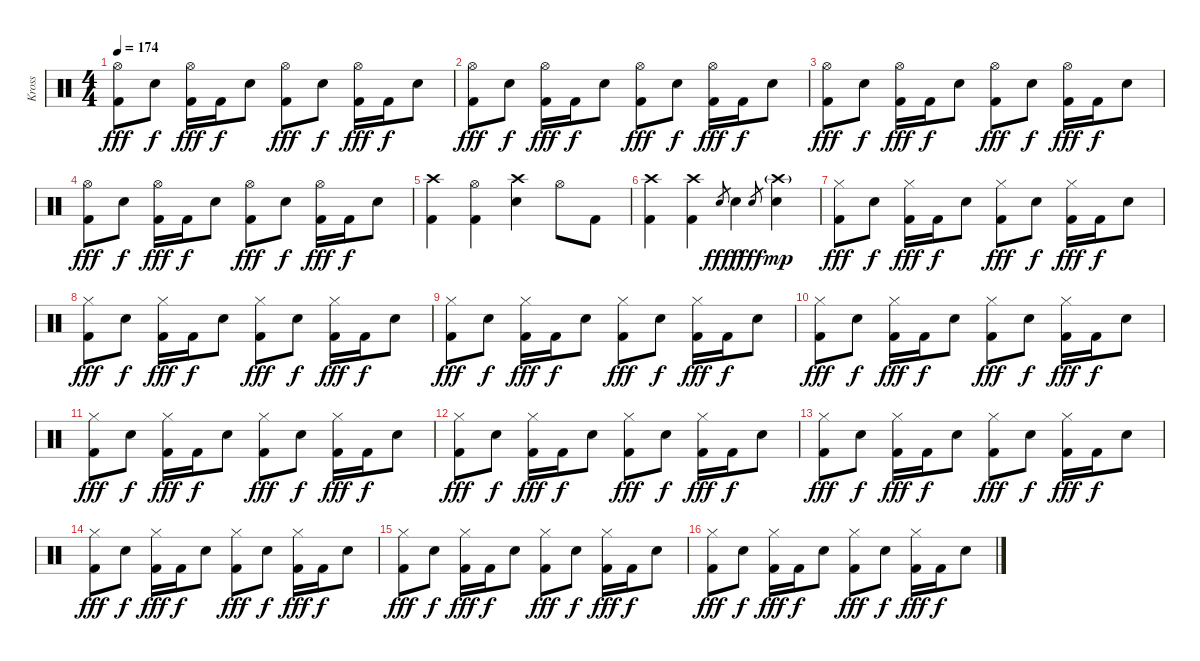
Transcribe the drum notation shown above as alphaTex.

\track ("Kross" "Kross") {instrument percussion}
\staff {score}
\articulation defaults
\ts (4 4)
\tempo 174
\clef neutral
\ks c
("Hi-Hat (open)" "Kick (hit) 2").8{dy fff} "Electric Snare (hit)".8{dy f} ("Hi-Hat (open)" "Kick (hit) 2").16{dy fff} "Kick (hit) 2".16{dy f} "Electric Snare (hit)".8 ("Hi-Hat (open)" "Kick (hit) 2").8{dy fff} "Electric Snare (hit)".8{dy f} ("Hi-Hat (open)" "Kick (hit) 2").16{dy fff} "Kick (hit) 2".16{dy f} "Electric Snare (hit)".8 |
("Hi-Hat (open)" "Kick (hit) 2").8{dy fff} "Electric Snare (hit)".8{dy f} ("Hi-Hat (open)" "Kick (hit) 2").16{dy fff} "Kick (hit) 2".16{dy f} "Electric Snare (hit)".8 ("Hi-Hat (open)" "Kick (hit) 2").8{dy fff} "Electric Snare (hit)".8{dy f} ("Hi-Hat (open)" "Kick (hit) 2").16{dy fff} "Kick (hit) 2".16{dy f} "Electric Snare (hit)".8 |
("Hi-Hat (open)" "Kick (hit) 2").8{dy fff} "Electric Snare (hit)".8{dy f} ("Hi-Hat (open)" "Kick (hit) 2").16{dy fff} "Kick (hit) 2".16{dy f} "Electric Snare (hit)".8 ("Hi-Hat (open)" "Kick (hit) 2").8{dy fff} "Electric Snare (hit)".8{dy f} ("Hi-Hat (open)" "Kick (hit) 2").16{dy fff} "Kick (hit) 2".16{dy f} "Electric Snare (hit)".8 |
("Hi-Hat (open)" "Kick (hit) 2").8{dy fff} "Electric Snare (hit)".8{dy f} ("Hi-Hat (open)" "Kick (hit) 2").16{dy fff} "Kick (hit) 2".16{dy f} "Electric Snare (hit)".8 ("Hi-Hat (open)" "Kick (hit) 2").8{dy fff} "Electric Snare (hit)".8{dy f} ("Hi-Hat (open)" "Kick (hit) 2").16{dy fff} "Kick (hit) 2".16{dy f} "Electric Snare (hit)".8 |
("Crash high (hit)" "Kick (hit) 2").4 ("Hi-Hat (open)" "Kick (hit) 2").4 ("Crash high (hit)" "Electric Snare (hit)").4 "Hi-Hat (open)".8 "Kick (hit) 2".8 |
("Crash high (hit)" "Kick (hit) 2").4 ("Crash high (hit)" "Kick (hit) 2").4 "Electric Snare (hit)".8{gr dy fff} "Electric Snare (hit)".4{dy f} "Electric Snare (hit)".8{gr dy fff} ("Crash high (hit)"{g} "Electric Snare (hit)").4{dy mp} |
("Hi-Hat (closed)" "Kick (hit) 2").8{dy fff} "Electric Snare (hit)".8{dy f} ("Hi-Hat (closed)" "Kick (hit) 2").16{dy fff} "Kick (hit) 2".16{dy f} "Electric Snare (hit)".8 ("Hi-Hat (closed)" "Kick (hit) 2").8{dy fff} "Electric Snare (hit)".8{dy f} ("Hi-Hat (closed)" "Kick (hit) 2").16{dy fff} "Kick (hit) 2".16{dy f} "Electric Snare (hit)".8 |
("Hi-Hat (closed)" "Kick (hit) 2").8{dy fff} "Electric Snare (hit)".8{dy f} ("Hi-Hat (closed)" "Kick (hit) 2").16{dy fff} "Kick (hit) 2".16{dy f} "Electric Snare (hit)".8 ("Hi-Hat (closed)" "Kick (hit) 2").8{dy fff} "Electric Snare (hit)".8{dy f} ("Hi-Hat (closed)" "Kick (hit) 2").16{dy fff} "Kick (hit) 2".16{dy f} "Electric Snare (hit)".8 |
("Hi-Hat (closed)" "Kick (hit) 2").8{dy fff} "Electric Snare (hit)".8{dy f} ("Hi-Hat (closed)" "Kick (hit) 2").16{dy fff} "Kick (hit) 2".16{dy f} "Electric Snare (hit)".8 ("Hi-Hat (closed)" "Kick (hit) 2").8{dy fff} "Electric Snare (hit)".8{dy f} ("Hi-Hat (closed)" "Kick (hit) 2").16{dy fff} "Kick (hit) 2".16{dy f} "Electric Snare (hit)".8 |
("Hi-Hat (closed)" "Kick (hit) 2").8{dy fff} "Electric Snare (hit)".8{dy f} ("Hi-Hat (closed)" "Kick (hit) 2").16{dy fff} "Kick (hit) 2".16{dy f} "Electric Snare (hit)".8 ("Hi-Hat (closed)" "Kick (hit) 2").8{dy fff} "Electric Snare (hit)".8{dy f} ("Hi-Hat (closed)" "Kick (hit) 2").16{dy fff} "Kick (hit) 2".16{dy f} "Electric Snare (hit)".8 |
("Hi-Hat (closed)" "Kick (hit) 2").8{dy fff} "Electric Snare (hit)".8{dy f} ("Hi-Hat (closed)" "Kick (hit) 2").16{dy fff} "Kick (hit) 2".16{dy f} "Electric Snare (hit)".8 ("Hi-Hat (closed)" "Kick (hit) 2").8{dy fff} "Electric Snare (hit)".8{dy f} ("Hi-Hat (closed)" "Kick (hit) 2").16{dy fff} "Kick (hit) 2".16{dy f} "Electric Snare (hit)".8 |
("Hi-Hat (closed)" "Kick (hit) 2").8{dy fff} "Electric Snare (hit)".8{dy f} ("Hi-Hat (closed)" "Kick (hit) 2").16{dy fff} "Kick (hit) 2".16{dy f} "Electric Snare (hit)".8 ("Hi-Hat (closed)" "Kick (hit) 2").8{dy fff} "Electric Snare (hit)".8{dy f} ("Hi-Hat (closed)" "Kick (hit) 2").16{dy fff} "Kick (hit) 2".16{dy f} "Electric Snare (hit)".8 |
("Hi-Hat (closed)" "Kick (hit) 2").8{dy fff} "Electric Snare (hit)".8{dy f} ("Hi-Hat (closed)" "Kick (hit) 2").16{dy fff} "Kick (hit) 2".16{dy f} "Electric Snare (hit)".8 ("Hi-Hat (closed)" "Kick (hit) 2").8{dy fff} "Electric Snare (hit)".8{dy f} ("Hi-Hat (closed)" "Kick (hit) 2").16{dy fff} "Kick (hit) 2".16{dy f} "Electric Snare (hit)".8 |
("Hi-Hat (closed)" "Kick (hit) 2").8{dy fff} "Electric Snare (hit)".8{dy f} ("Hi-Hat (closed)" "Kick (hit) 2").16{dy fff} "Kick (hit) 2".16{dy f} "Electric Snare (hit)".8 ("Hi-Hat (closed)" "Kick (hit) 2").8{dy fff} "Electric Snare (hit)".8{dy f} ("Hi-Hat (closed)" "Kick (hit) 2").16{dy fff} "Kick (hit) 2".16{dy f} "Electric Snare (hit)".8 |
("Hi-Hat (closed)" "Kick (hit) 2").8{dy fff} "Electric Snare (hit)".8{dy f} ("Hi-Hat (closed)" "Kick (hit) 2").16{dy fff} "Kick (hit) 2".16{dy f} "Electric Snare (hit)".8 ("Hi-Hat (closed)" "Kick (hit) 2").8{dy fff} "Electric Snare (hit)".8{dy f} ("Hi-Hat (closed)" "Kick (hit) 2").16{dy fff} "Kick (hit) 2".16{dy f} "Electric Snare (hit)".8 |
("Hi-Hat (closed)" "Kick (hit) 2").8{dy fff} "Electric Snare (hit)".8{dy f} ("Hi-Hat (closed)" "Kick (hit) 2").16{dy fff} "Kick (hit) 2".16{dy f} "Electric Snare (hit)".8 ("Hi-Hat (closed)" "Kick (hit) 2").8{dy fff} "Electric Snare (hit)".8{dy f} ("Hi-Hat (closed)" "Kick (hit) 2").16{dy fff} "Kick (hit) 2".16{dy f} "Electric Snare (hit)".8
